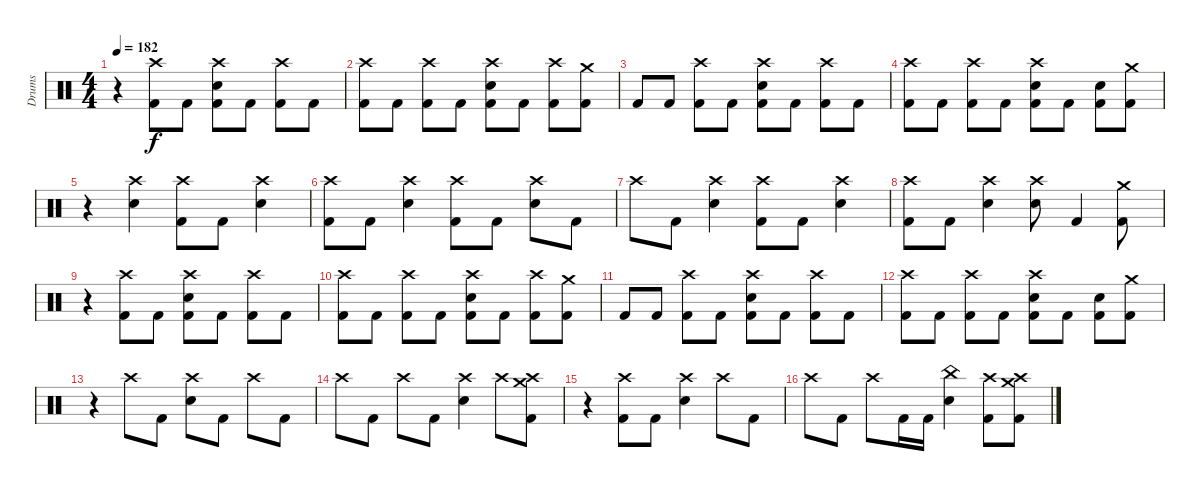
\track ("Drums" "Drums") {instrument percussion}
\staff {score}
\articulation defaults
\ts (4 4)
\tempo 182
\clef neutral
\ks c
r.4{dy f} ("Crash high (hit)" "Kick (hit) 2").8 "Kick (hit) 2".8 ("Crash high (hit)" "Snare (hit) 2" "Kick (hit) 2").8 "Kick (hit) 2".8 ("Crash high (hit)" "Kick (hit) 2").8 "Kick (hit) 2".8 |
("Crash high (hit)" "Kick (hit) 2").8 "Kick (hit) 2".8 ("Crash high (hit)" "Kick (hit) 2").8 "Kick (hit) 2".8 ("Crash high (hit)" "Snare (hit) 2" "Kick (hit) 2").8 "Kick (hit) 2".8 ("Crash high (hit)" "Kick (hit) 2").8 ("Crash medium (hit)" "Kick (hit) 2").8 |
"Kick (hit) 2".8 "Kick (hit) 2".8 ("Crash high (hit)" "Kick (hit) 2").8 "Kick (hit) 2".8 ("Crash high (hit)" "Snare (hit) 2" "Kick (hit) 2").8 "Kick (hit) 2".8 ("Crash high (hit)" "Kick (hit) 2").8 "Kick (hit) 2".8 |
("Crash high (hit)" "Kick (hit) 2").8 "Kick (hit) 2".8 ("Crash high (hit)" "Kick (hit) 2").8 "Kick (hit) 2".8 ("Crash high (hit)" "Snare (hit) 2" "Kick (hit) 2").8 "Kick (hit) 2".8 ("Snare (hit) 2" "Kick (hit) 2").8 ("Crash medium (hit)" "Kick (hit) 2").8 |
r.4 ("Crash high (hit)" "Snare (hit) 2").4 ("Crash high (hit)" "Kick (hit) 2").8 "Kick (hit) 2".8 ("Crash high (hit)" "Snare (hit) 2").4 |
("Crash high (hit)" "Kick (hit) 2").8 "Kick (hit) 2".8 ("Crash high (hit)" "Snare (hit) 2").4 ("Crash high (hit)" "Kick (hit) 2").8 "Kick (hit) 2".8 ("Crash high (hit)" "Snare (hit) 2").8 "Kick (hit) 2".8 |
"Crash high (hit)".8 "Kick (hit) 2".8 ("Crash high (hit)" "Snare (hit) 2").4 ("Crash high (hit)" "Kick (hit) 2").8 "Kick (hit) 2".8 ("Crash high (hit)" "Snare (hit) 2").4 |
("Crash high (hit)" "Kick (hit) 2").8 "Kick (hit) 2".8 ("Crash high (hit)" "Snare (hit) 2").4 ("Crash high (hit)" "Snare (hit) 2").8 "Kick (hit) 2".4 ("Crash medium (hit)" "Kick (hit) 2").8 |
r.4 ("Crash high (hit)" "Kick (hit) 2").8 "Kick (hit) 2".8 ("Crash high (hit)" "Snare (hit) 2" "Kick (hit) 2").8 "Kick (hit) 2".8 ("Crash high (hit)" "Kick (hit) 2").8 "Kick (hit) 2".8 |
("Crash high (hit)" "Kick (hit) 2").8 "Kick (hit) 2".8 ("Crash high (hit)" "Kick (hit) 2").8 "Kick (hit) 2".8 ("Crash high (hit)" "Snare (hit) 2" "Kick (hit) 2").8 "Kick (hit) 2".8 ("Crash high (hit)" "Kick (hit) 2").8 ("Crash medium (hit)" "Kick (hit) 2").8 |
"Kick (hit) 2".8 "Kick (hit) 2".8 ("Crash high (hit)" "Kick (hit) 2").8 "Kick (hit) 2".8 ("Crash high (hit)" "Snare (hit) 2" "Kick (hit) 2").8 "Kick (hit) 2".8 ("Crash high (hit)" "Kick (hit) 2").8 "Kick (hit) 2".8 |
("Crash high (hit)" "Kick (hit) 2").8 "Kick (hit) 2".8 ("Crash high (hit)" "Kick (hit) 2").8 "Kick (hit) 2".8 ("Crash high (hit)" "Snare (hit) 2" "Kick (hit) 2").8 "Kick (hit) 2".8 ("Snare (hit) 2" "Kick (hit) 2").8 ("Crash medium (hit)" "Kick (hit) 2").8 |
r.4{volume 12} "Crash high (hit)".8 "Kick (hit) 2".8 ("Crash high (hit)" "Snare (hit) 2").8 "Kick (hit) 2".8 "Crash high (hit)".8 "Kick (hit) 2".8 |
"Crash high (hit)".8 "Kick (hit) 2".8 "Crash high (hit)".8 "Kick (hit) 2".8 ("Crash high (hit)" "Snare (hit) 2").4 "Crash high (hit)".8 ("Crash medium (hit)" "Crash high (hit)" "Kick (hit) 2").8 |
r.4 ("Crash high (hit)" "Kick (hit) 2").8 "Kick (hit) 2".8 ("Crash high (hit)" "Snare (hit) 2").4 "Crash high (hit)".8 "Kick (hit) 2".8 |
"Crash high (hit)".8 "Kick (hit) 2".8 "Crash high (hit)".8 "Kick (hit) 2".16 "Kick (hit) 2".16 ("China (hit)" "Snare (hit) 2").4 ("Crash high (hit)" "Kick (hit) 2").8 ("Crash medium (hit)" "Crash high (hit)" "Kick (hit) 2").8
